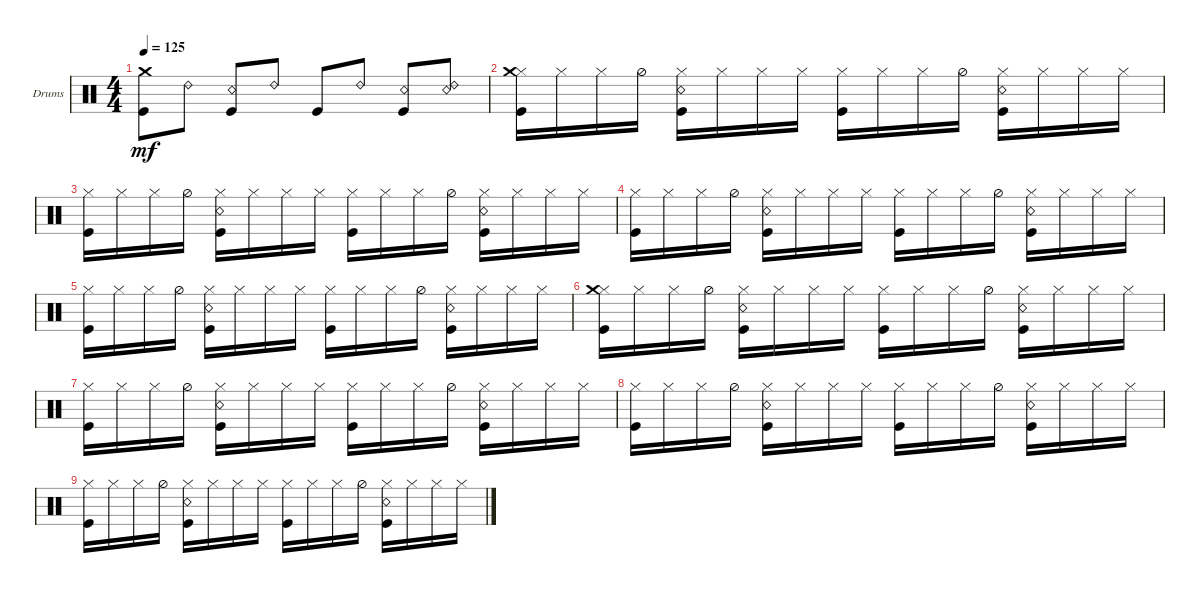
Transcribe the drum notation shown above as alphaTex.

\defaultSystemsLayout 4
\bracketExtendMode groupsimilarinstruments
\firstSystemTrackNameOrientation horizontal
\otherSystemsTrackNameOrientation horizontal
\track ("Drumkit" "Drums") {instrument percussion}
\staff {score}
\articulation defaults
\ts (4 4)
\tempo 125
\clef neutral
\ks c
("Kick (hit)" "Crash medium (hit)").8{dy mf} "Ride (bell) 2".8 ("Kick (hit)" "Snare (rim shot)").8 "Ride (bell) 2".8 "Kick (hit)".8 "Ride (bell) 2".8 ("Kick (hit)" "Snare (rim shot)").8 ("Ride (bell) 2" "Snare (rim shot)").8 |
("Hi-Hat (closed)" "Kick (hit)" "Crash medium (hit)").16 "Hi-Hat (closed)".16 "Hi-Hat (closed)".16 "Hi-Hat (half)".16 ("Hi-Hat (closed)" "Kick (hit)" "Snare (rim shot)").16 "Hi-Hat (closed)".16 "Hi-Hat (closed)".16 "Hi-Hat (closed)".16 ("Hi-Hat (closed)" "Kick (hit)").16 "Hi-Hat (closed)".16 "Hi-Hat (closed)".16 "Hi-Hat (half)".16 ("Hi-Hat (closed)" "Kick (hit)" "Snare (rim shot)").16 "Hi-Hat (closed)".16 "Hi-Hat (closed)".16 "Hi-Hat (closed)".16 |
("Hi-Hat (closed)" "Kick (hit)").16 "Hi-Hat (closed)".16 "Hi-Hat (closed)".16 "Hi-Hat (half)".16 ("Hi-Hat (closed)" "Kick (hit)" "Snare (rim shot)").16 "Hi-Hat (closed)".16 "Hi-Hat (closed)".16 "Hi-Hat (closed)".16 ("Hi-Hat (closed)" "Kick (hit)").16 "Hi-Hat (closed)".16 "Hi-Hat (closed)".16 "Hi-Hat (half)".16 ("Hi-Hat (closed)" "Kick (hit)" "Snare (rim shot)").16 "Hi-Hat (closed)".16 "Hi-Hat (closed)".16 "Hi-Hat (closed)".16 |
("Hi-Hat (closed)" "Kick (hit)").16 "Hi-Hat (closed)".16 "Hi-Hat (closed)".16 "Hi-Hat (half)".16 ("Hi-Hat (closed)" "Kick (hit)" "Snare (rim shot)").16 "Hi-Hat (closed)".16 "Hi-Hat (closed)".16 "Hi-Hat (closed)".16 ("Hi-Hat (closed)" "Kick (hit)").16 "Hi-Hat (closed)".16 "Hi-Hat (closed)".16 "Hi-Hat (half)".16 ("Hi-Hat (closed)" "Kick (hit)" "Snare (rim shot)").16 "Hi-Hat (closed)".16 "Hi-Hat (closed)".16 "Hi-Hat (closed)".16 |
("Hi-Hat (closed)" "Kick (hit)").16 "Hi-Hat (closed)".16 "Hi-Hat (closed)".16 "Hi-Hat (half)".16 ("Hi-Hat (closed)" "Kick (hit)" "Snare (rim shot)").16 "Hi-Hat (closed)".16 "Hi-Hat (closed)".16 "Hi-Hat (closed)".16 ("Hi-Hat (closed)" "Kick (hit)").16 "Hi-Hat (closed)".16 "Hi-Hat (closed)".16 "Hi-Hat (half)".16 ("Hi-Hat (closed)" "Kick (hit)" "Snare (rim shot)").16 "Hi-Hat (closed)".16 "Hi-Hat (closed)".16 "Hi-Hat (closed)".16 |
("Hi-Hat (closed)" "Kick (hit)" "Crash medium (hit)").16 "Hi-Hat (closed)".16 "Hi-Hat (closed)".16 "Hi-Hat (half)".16 ("Hi-Hat (closed)" "Kick (hit)" "Snare (rim shot)").16 "Hi-Hat (closed)".16 "Hi-Hat (closed)".16 "Hi-Hat (closed)".16 ("Hi-Hat (closed)" "Kick (hit)").16 "Hi-Hat (closed)".16 "Hi-Hat (closed)".16 "Hi-Hat (half)".16 ("Hi-Hat (closed)" "Kick (hit)" "Snare (rim shot)").16 "Hi-Hat (closed)".16 "Hi-Hat (closed)".16 "Hi-Hat (closed)".16 |
("Hi-Hat (closed)" "Kick (hit)").16 "Hi-Hat (closed)".16 "Hi-Hat (closed)".16 "Hi-Hat (half)".16 ("Hi-Hat (closed)" "Kick (hit)" "Snare (rim shot)").16 "Hi-Hat (closed)".16 "Hi-Hat (closed)".16 "Hi-Hat (closed)".16 ("Hi-Hat (closed)" "Kick (hit)").16 "Hi-Hat (closed)".16 "Hi-Hat (closed)".16 "Hi-Hat (half)".16 ("Hi-Hat (closed)" "Kick (hit)" "Snare (rim shot)").16 "Hi-Hat (closed)".16 "Hi-Hat (closed)".16 "Hi-Hat (closed)".16 |
("Hi-Hat (closed)" "Kick (hit)").16 "Hi-Hat (closed)".16 "Hi-Hat (closed)".16 "Hi-Hat (half)".16 ("Hi-Hat (closed)" "Kick (hit)" "Snare (rim shot)").16 "Hi-Hat (closed)".16 "Hi-Hat (closed)".16 "Hi-Hat (closed)".16 ("Hi-Hat (closed)" "Kick (hit)").16 "Hi-Hat (closed)".16 "Hi-Hat (closed)".16 "Hi-Hat (half)".16 ("Hi-Hat (closed)" "Kick (hit)" "Snare (rim shot)").16 "Hi-Hat (closed)".16 "Hi-Hat (closed)".16 "Hi-Hat (closed)".16 |
("Hi-Hat (closed)" "Kick (hit)").16 "Hi-Hat (closed)".16 "Hi-Hat (closed)".16 "Hi-Hat (half)".16 ("Hi-Hat (closed)" "Kick (hit)" "Snare (rim shot)").16 "Hi-Hat (closed)".16 "Hi-Hat (closed)".16 "Hi-Hat (closed)".16 ("Hi-Hat (closed)" "Kick (hit)").16 "Hi-Hat (closed)".16 "Hi-Hat (closed)".16 "Hi-Hat (half)".16 ("Hi-Hat (closed)" "Kick (hit)" "Snare (rim shot)").16 "Hi-Hat (closed)".16 "Hi-Hat (closed)".16 "Hi-Hat (closed)".16
